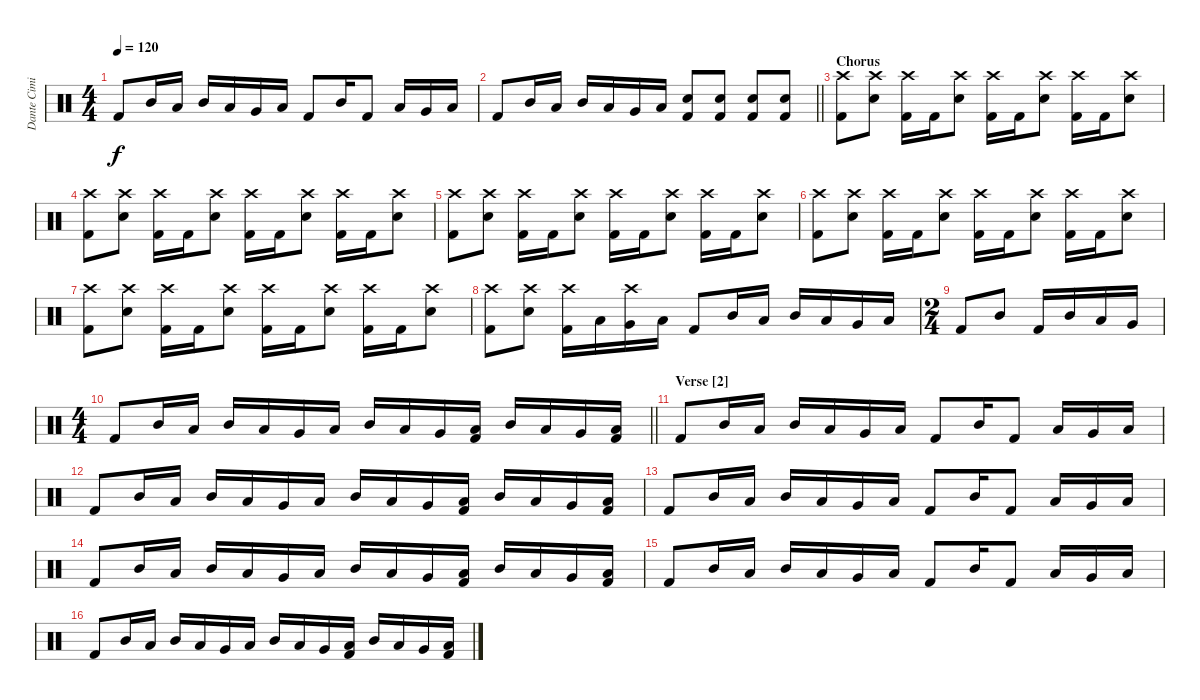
\track ("Dante Cimino" "Dante Cimi") {instrument percussion}
\staff {score}
\articulation defaults
\ts (4 4)
\tempo 120
\clef neutral
\ks c "Kick (hit) 2".8{dy f} "Mid Tom (hit)".16 "Low Tom (hit)".16 "Mid Tom (hit)".16 "Low Tom (hit)".16 "Very Low Tom (hit)".16 "Low Floor Tom (hit)".16 "Kick (hit) 2".8 "Mid Tom (hit)".16 "Kick (hit) 2".8 "Low Tom (hit)".16 "Very Low Tom (hit)".16 "Low Floor Tom (hit)".16
|
\barLineRight lightlight "Kick (hit) 2".8 "Mid Tom (hit)".16 "Low Tom (hit)".16 "Mid Tom (hit)".16 "Low Tom (hit)".16 "Very Low Tom (hit)".16 "Low Floor Tom (hit)".16
("Electric Snare (hit)" "Kick (hit) 2").8 ("Electric Snare (hit)" "Kick (hit) 2").8 ("Electric Snare (hit)" "Kick (hit) 2").8 ("Electric Snare (hit)" "Kick (hit) 2").8 |
\section ("" "Chorus")
("Crash high (hit)" "Kick (hit) 2").8 ("Crash high (hit)" "Electric Snare (hit)").8 ("Crash high (hit)" "Kick (hit) 2").16 "Kick (hit) 2".16 ("Crash high (hit)" "Electric Snare (hit)").8 ("Crash high (hit)" "Kick (hit) 2").16 "Kick (hit) 2".16 ("Crash high (hit)" "Electric Snare (hit)").8 ("Crash high (hit)" "Kick (hit) 2").16 "Kick (hit) 2".16 ("Crash high (hit)" "Electric Snare (hit)").8 |
("Crash high (hit)" "Kick (hit) 2").8 ("Crash high (hit)" "Electric Snare (hit)").8 ("Crash high (hit)" "Kick (hit) 2").16 "Kick (hit) 2".16 ("Crash high (hit)" "Electric Snare (hit)").8 ("Crash high (hit)" "Kick (hit) 2").16 "Kick (hit) 2".16 ("Crash high (hit)" "Electric Snare (hit)").8 ("Crash high (hit)" "Kick (hit) 2").16 "Kick (hit) 2".16 ("Crash high (hit)" "Electric Snare (hit)").8 |
("Crash high (hit)" "Kick (hit) 2").8 ("Crash high (hit)" "Electric Snare (hit)").8 ("Crash high (hit)" "Kick (hit) 2").16 "Kick (hit) 2".16 ("Crash high (hit)" "Electric Snare (hit)").8 ("Crash high (hit)" "Kick (hit) 2").16 "Kick (hit) 2".16 ("Crash high (hit)" "Electric Snare (hit)").8 ("Crash high (hit)" "Kick (hit) 2").16 "Kick (hit) 2".16 ("Crash high (hit)" "Electric Snare (hit)").8 |
("Crash high (hit)" "Kick (hit) 2").8 ("Crash high (hit)" "Electric Snare (hit)").8 ("Crash high (hit)" "Kick (hit) 2").16 "Kick (hit) 2".16 ("Crash high (hit)" "Electric Snare (hit)").8 ("Crash high (hit)" "Kick (hit) 2").16 "Kick (hit) 2".16 ("Crash high (hit)" "Electric Snare (hit)").8 ("Crash high (hit)" "Kick (hit) 2").16 "Kick (hit) 2".16 ("Crash high (hit)" "Electric Snare (hit)").8 |
("Crash high (hit)" "Kick (hit) 2").8 ("Crash high (hit)" "Electric Snare (hit)").8 ("Crash high (hit)" "Kick (hit) 2").16 "Kick (hit) 2".16 ("Crash high (hit)" "Electric Snare (hit)").8 ("Crash high (hit)" "Kick (hit) 2").16 "Kick (hit) 2".16 ("Crash high (hit)" "Electric Snare (hit)").8 ("Crash high (hit)" "Kick (hit) 2").16 "Kick (hit) 2".16 ("Crash high (hit)" "Electric Snare (hit)").8 |
("Crash high (hit)" "Kick (hit) 2").8 ("Crash high (hit)" "Electric Snare (hit)").8 ("Crash high (hit)" "Kick (hit) 2").16 "Low Tom (hit)".16 ("Crash high (hit)" "Very Low Tom (hit)").16 "Low Floor Tom (hit)".16 "Kick (hit) 2".8 "Mid Tom (hit)".16 "Low Tom (hit)".16 "Mid Tom (hit)".16 "Low Tom (hit)".16 "Very Low Tom (hit)".16 "Low Floor Tom (hit)".16 |
\ts (2 4)
"Kick (hit) 2".8 "Mid Tom (hit)".8 "Kick (hit) 2".16 "Mid Tom (hit)".16 "Low Tom (hit)".16 "Very Low Tom (hit)".16 |
\ts (4 4)
\barLineRight lightlight "Kick (hit) 2".8 "Mid Tom (hit)".16 "Low Tom (hit)".16 "Mid Tom (hit)".16 "Low Tom (hit)".16 "Very Low Tom (hit)".16 "Low Floor Tom (hit)".16 "Mid Tom (hit)".16 "Low Tom (hit)".16 "Very Low Tom (hit)".16
("Low Floor Tom (hit)" "Kick (hit) 2").16 "Mid Tom (hit)".16 "Low Tom (hit)".16 "Very Low Tom (hit)".16 ("Low Floor Tom (hit)" "Kick (hit) 2").16 |
\section ("" "Verse [2]")
"Kick (hit) 2".8 "Mid Tom (hit)".16 "Low Tom (hit)".16 "Mid Tom (hit)".16 "Low Tom (hit)".16 "Very Low Tom (hit)".16 "Low Floor Tom (hit)".16 "Kick (hit) 2".8 "Mid Tom (hit)".16 "Kick (hit) 2".8 "Low Tom (hit)".16 "Very Low Tom (hit)".16 "Low Floor Tom (hit)".16 |
"Kick (hit) 2".8 "Mid Tom (hit)".16 "Low Tom (hit)".16 "Mid Tom (hit)".16 "Low Tom (hit)".16 "Very Low Tom (hit)".16 "Low Floor Tom (hit)".16 "Mid Tom (hit)".16 "Low Tom (hit)".16 "Very Low Tom (hit)".16 ("Low Floor Tom (hit)" "Kick (hit) 2").16 "Mid Tom (hit)".16 "Low Tom (hit)".16 "Very Low Tom (hit)".16 ("Low Floor Tom (hit)" "Kick (hit) 2").16 |
"Kick (hit) 2".8 "Mid Tom (hit)".16 "Low Tom (hit)".16 "Mid Tom (hit)".16 "Low Tom (hit)".16 "Very Low Tom (hit)".16 "Low Floor Tom (hit)".16 "Kick (hit) 2".8 "Mid Tom (hit)".16 "Kick (hit) 2".8 "Low Tom (hit)".16 "Very Low Tom (hit)".16 "Low Floor Tom (hit)".16 |
"Kick (hit) 2".8 "Mid Tom (hit)".16 "Low Tom (hit)".16 "Mid Tom (hit)".16 "Low Tom (hit)".16 "Very Low Tom (hit)".16 "Low Floor Tom (hit)".16 "Mid Tom (hit)".16 "Low Tom (hit)".16 "Very Low Tom (hit)".16 ("Low Floor Tom (hit)" "Kick (hit) 2").16 "Mid Tom (hit)".16 "Low Tom (hit)".16 "Very Low Tom (hit)".16 ("Low Floor Tom (hit)" "Kick (hit) 2").16 |
"Kick (hit) 2".8 "Mid Tom (hit)".16 "Low Tom (hit)".16 "Mid Tom (hit)".16 "Low Tom (hit)".16 "Very Low Tom (hit)".16 "Low Floor Tom (hit)".16 "Kick (hit) 2".8 "Mid Tom (hit)".16 "Kick (hit) 2".8 "Low Tom (hit)".16 "Very Low Tom (hit)".16 "Low Floor Tom (hit)".16 |
"Kick (hit) 2".8 "Mid Tom (hit)".16 "Low Tom (hit)".16 "Mid Tom (hit)".16 "Low Tom (hit)".16 "Very Low Tom (hit)".16 "Low Floor Tom (hit)".16 "Mid Tom (hit)".16 "Low Tom (hit)".16 "Very Low Tom (hit)".16 ("Low Floor Tom (hit)" "Kick (hit) 2").16 "Mid Tom (hit)".16 "Low Tom (hit)".16 "Very Low Tom (hit)".16 ("Low Floor Tom (hit)" "Kick (hit) 2").16
